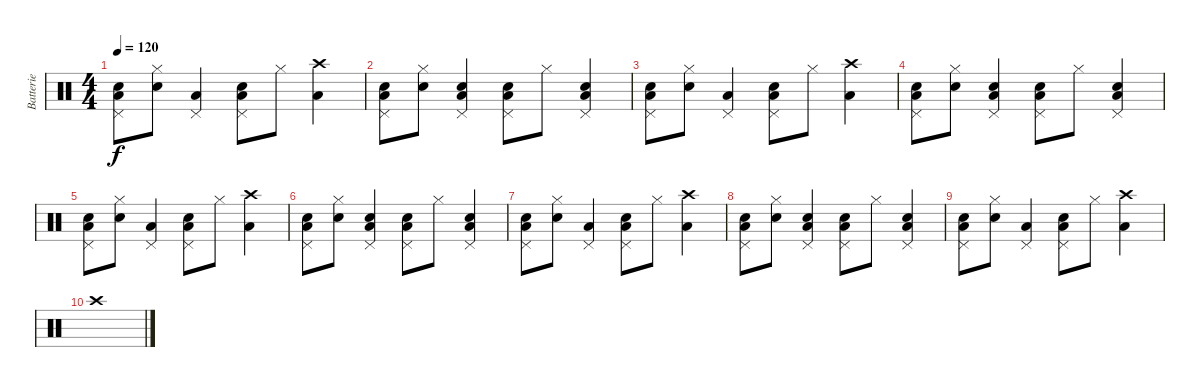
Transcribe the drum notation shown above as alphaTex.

\track ("Batterie" "Batterie") {instrument percussion}
\staff {score}
\articulation defaults
\ts (4 4)
\tempo 120
\clef neutral
\ks c
("Pedal Hi-Hat (hit)" "Low Tom (hit)" "Snare (hit) 2").8{dy f} ("Hi-Hat (closed)" "Snare (hit) 2").8 ("Pedal Hi-Hat (hit)" "Low Tom (hit)").4 ("Pedal Hi-Hat (hit)" "Low Tom (hit)" "Snare (hit) 2").8 "Hi-Hat (closed)".8 ("Low Tom (hit)" "Crash high (hit)").4 |
("Pedal Hi-Hat (hit)" "Low Tom (hit)" "Snare (hit) 2").8 ("Hi-Hat (closed)" "Snare (hit) 2").8 ("Pedal Hi-Hat (hit)" "Low Tom (hit)" "Electric Snare (hit)").4 ("Pedal Hi-Hat (hit)" "Low Tom (hit)" "Snare (hit) 2").8 "Hi-Hat (closed)".8 ("Pedal Hi-Hat (hit)" "Low Tom (hit)" "Electric Snare (hit)").4 |
("Pedal Hi-Hat (hit)" "Low Tom (hit)" "Snare (hit) 2").8 ("Hi-Hat (closed)" "Snare (hit) 2").8 ("Pedal Hi-Hat (hit)" "Low Tom (hit)").4 ("Pedal Hi-Hat (hit)" "Low Tom (hit)" "Snare (hit) 2").8 "Hi-Hat (closed)".8 ("Low Tom (hit)" "Crash high (hit)").4 |
("Pedal Hi-Hat (hit)" "Low Tom (hit)" "Snare (hit) 2").8 ("Hi-Hat (closed)" "Snare (hit) 2").8 ("Pedal Hi-Hat (hit)" "Low Tom (hit)" "Electric Snare (hit)").4 ("Pedal Hi-Hat (hit)" "Low Tom (hit)" "Snare (hit) 2").8 "Hi-Hat (closed)".8 ("Pedal Hi-Hat (hit)" "Low Tom (hit)" "Electric Snare (hit)").4 |
("Pedal Hi-Hat (hit)" "Low Tom (hit)" "Snare (hit) 2").8 ("Hi-Hat (closed)" "Snare (hit) 2").8 ("Pedal Hi-Hat (hit)" "Low Tom (hit)").4 ("Pedal Hi-Hat (hit)" "Low Tom (hit)" "Snare (hit) 2").8 "Hi-Hat (closed)".8 ("Low Tom (hit)" "Crash high (hit)").4 |
("Pedal Hi-Hat (hit)" "Low Tom (hit)" "Snare (hit) 2").8 ("Hi-Hat (closed)" "Snare (hit) 2").8 ("Pedal Hi-Hat (hit)" "Low Tom (hit)" "Electric Snare (hit)").4 ("Pedal Hi-Hat (hit)" "Low Tom (hit)" "Snare (hit) 2").8 "Hi-Hat (closed)".8 ("Pedal Hi-Hat (hit)" "Low Tom (hit)" "Electric Snare (hit)").4 |
("Pedal Hi-Hat (hit)" "Low Tom (hit)" "Snare (hit) 2").8 ("Hi-Hat (closed)" "Snare (hit) 2").8 ("Pedal Hi-Hat (hit)" "Low Tom (hit)").4 ("Pedal Hi-Hat (hit)" "Low Tom (hit)" "Snare (hit) 2").8 "Hi-Hat (closed)".8 ("Low Tom (hit)" "Crash high (hit)").4 |
("Pedal Hi-Hat (hit)" "Low Tom (hit)" "Snare (hit) 2").8 ("Hi-Hat (closed)" "Snare (hit) 2").8 ("Pedal Hi-Hat (hit)" "Low Tom (hit)" "Electric Snare (hit)").4 ("Pedal Hi-Hat (hit)" "Low Tom (hit)" "Snare (hit) 2").8 "Hi-Hat (closed)".8 ("Pedal Hi-Hat (hit)" "Low Tom (hit)" "Electric Snare (hit)").4 |
("Pedal Hi-Hat (hit)" "Low Tom (hit)" "Snare (hit) 2").8 ("Hi-Hat (closed)" "Snare (hit) 2").8 ("Pedal Hi-Hat (hit)" "Low Tom (hit)").4 ("Pedal Hi-Hat (hit)" "Low Tom (hit)" "Snare (hit) 2").8 "Hi-Hat (closed)".8 ("Low Tom (hit)" "Crash high (hit)").4 |
"Crash high (hit)".1
